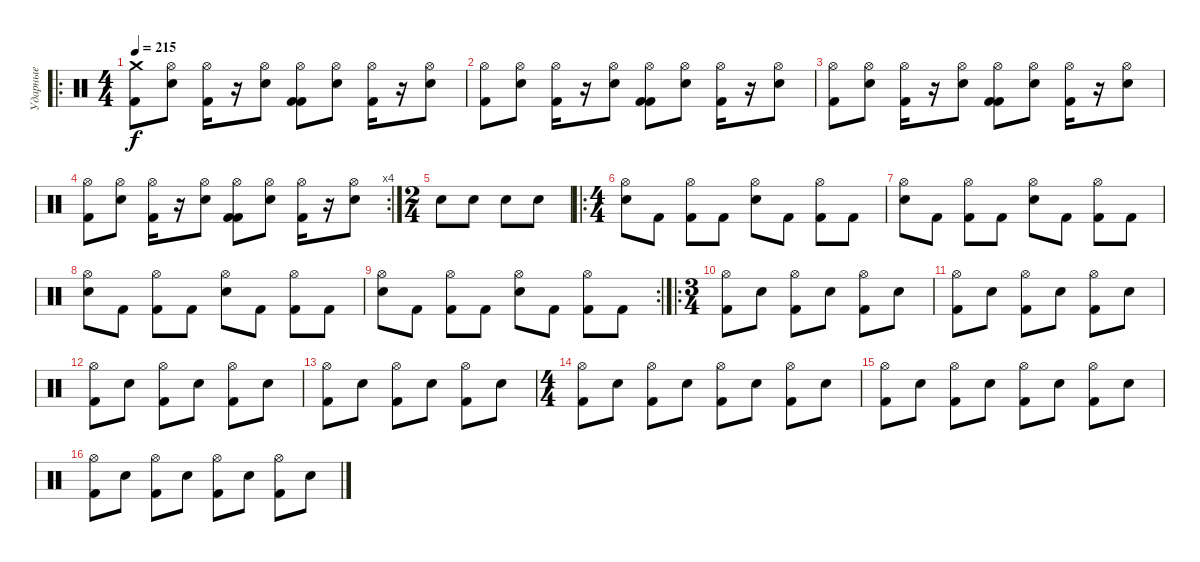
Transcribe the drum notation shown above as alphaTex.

\track ("Ударные" "Ударные") {instrument percussion}
\staff {score}
\articulation defaults
\ro
\ts (4 4)
\tempo 215
\clef neutral
\ks c
("Kick (hit) 2" "Crash medium (hit)").8{dy f} ("Hi-Hat (open)" "Electric Snare (hit)").8 ("Kick (hit) 2" "Hi-Hat (open)").16 r.16 ("Hi-Hat (open)" "Electric Snare (hit)").8 ("Kick (hit) 2" "Kick (hit) 2" "Hi-Hat (open)").8 ("Hi-Hat (open)" "Electric Snare (hit)").8 ("Kick (hit) 2" "Hi-Hat (open)").16 r.16 ("Hi-Hat (open)" "Electric Snare (hit)").8 |
("Kick (hit) 2" "Hi-Hat (open)").8 ("Hi-Hat (open)" "Electric Snare (hit)").8 ("Kick (hit) 2" "Hi-Hat (open)").16 r.16 ("Hi-Hat (open)" "Electric Snare (hit)").8 ("Kick (hit) 2" "Kick (hit) 2" "Hi-Hat (open)").8 ("Hi-Hat (open)" "Electric Snare (hit)").8 ("Kick (hit) 2" "Hi-Hat (open)").16 r.16 ("Hi-Hat (open)" "Electric Snare (hit)").8 |
("Kick (hit) 2" "Hi-Hat (open)").8 ("Hi-Hat (open)" "Electric Snare (hit)").8 ("Kick (hit) 2" "Hi-Hat (open)").16 r.16 ("Hi-Hat (open)" "Electric Snare (hit)").8 ("Kick (hit) 2" "Kick (hit) 2" "Hi-Hat (open)").8 ("Hi-Hat (open)" "Electric Snare (hit)").8 ("Kick (hit) 2" "Hi-Hat (open)").16 r.16 ("Hi-Hat (open)" "Electric Snare (hit)").8 |
\rc 4
("Kick (hit) 2" "Hi-Hat (open)").8 ("Hi-Hat (open)" "Electric Snare (hit)").8 ("Kick (hit) 2" "Hi-Hat (open)").16 r.16 ("Hi-Hat (open)" "Electric Snare (hit)").8 ("Kick (hit) 2" "Kick (hit) 2" "Hi-Hat (open)").8 ("Hi-Hat (open)" "Electric Snare (hit)").8 ("Kick (hit) 2" "Hi-Hat (open)").16 r.16 ("Hi-Hat (open)" "Electric Snare (hit)").8 |
\ts (2 4)
"Electric Snare (hit)".8 "Electric Snare (hit)".8 "Electric Snare (hit)".8 "Electric Snare (hit)".8 |
\ro
\ts (4 4)
("Electric Snare (hit)" "Hi-Hat (open)").8 "Kick (hit) 2".8 ("Hi-Hat (open)" "Kick (hit) 2").8 "Kick (hit) 2".8 ("Electric Snare (hit)" "Hi-Hat (open)").8 "Kick (hit) 2".8 ("Hi-Hat (open)" "Kick (hit) 2").8 "Kick (hit) 2".8 |
("Electric Snare (hit)" "Hi-Hat (open)").8 "Kick (hit) 2".8 ("Hi-Hat (open)" "Kick (hit) 2").8 "Kick (hit) 2".8 ("Electric Snare (hit)" "Hi-Hat (open)").8 "Kick (hit) 2".8 ("Hi-Hat (open)" "Kick (hit) 2").8 "Kick (hit) 2".8 |
("Electric Snare (hit)" "Hi-Hat (open)").8 "Kick (hit) 2".8 ("Hi-Hat (open)" "Kick (hit) 2").8 "Kick (hit) 2".8 ("Electric Snare (hit)" "Hi-Hat (open)").8 "Kick (hit) 2".8 ("Hi-Hat (open)" "Kick (hit) 2").8 "Kick (hit) 2".8 |
\rc 2
("Electric Snare (hit)" "Hi-Hat (open)").8 "Kick (hit) 2".8 ("Hi-Hat (open)" "Kick (hit) 2").8 "Kick (hit) 2".8 ("Electric Snare (hit)" "Hi-Hat (open)").8 "Kick (hit) 2".8 ("Hi-Hat (open)" "Kick (hit) 2").8 "Kick (hit) 2".8 |
\ro
\ts (3 4)
("Kick (hit) 2" "Hi-Hat (open)").8 "Electric Snare (hit)".8 ("Kick (hit) 2" "Hi-Hat (open)").8 "Electric Snare (hit)".8 ("Kick (hit) 2" "Hi-Hat (open)").8 "Electric Snare (hit)".8 |
("Kick (hit) 2" "Hi-Hat (open)").8 "Electric Snare (hit)".8 ("Kick (hit) 2" "Hi-Hat (open)").8 "Electric Snare (hit)".8 ("Kick (hit) 2" "Hi-Hat (open)").8 "Electric Snare (hit)".8 |
("Kick (hit) 2" "Hi-Hat (open)").8 "Electric Snare (hit)".8 ("Kick (hit) 2" "Hi-Hat (open)").8 "Electric Snare (hit)".8 ("Kick (hit) 2" "Hi-Hat (open)").8 "Electric Snare (hit)".8 |
("Kick (hit) 2" "Hi-Hat (open)").8 "Electric Snare (hit)".8 ("Kick (hit) 2" "Hi-Hat (open)").8 "Electric Snare (hit)".8 ("Kick (hit) 2" "Hi-Hat (open)").8 "Electric Snare (hit)".8 |
\ts (4 4)
("Kick (hit) 2" "Hi-Hat (open)").8 "Electric Snare (hit)".8 ("Kick (hit) 2" "Hi-Hat (open)").8 "Electric Snare (hit)".8 ("Kick (hit) 2" "Hi-Hat (open)").8 "Electric Snare (hit)".8 ("Kick (hit) 2" "Hi-Hat (open)").8 "Electric Snare (hit)".8 |
("Kick (hit) 2" "Hi-Hat (open)").8 "Electric Snare (hit)".8 ("Kick (hit) 2" "Hi-Hat (open)").8 "Electric Snare (hit)".8 ("Kick (hit) 2" "Hi-Hat (open)").8 "Electric Snare (hit)".8 ("Kick (hit) 2" "Hi-Hat (open)").8 "Electric Snare (hit)".8 |
("Kick (hit) 2" "Hi-Hat (open)").8 "Electric Snare (hit)".8 ("Kick (hit) 2" "Hi-Hat (open)").8 "Electric Snare (hit)".8 ("Kick (hit) 2" "Hi-Hat (open)").8 "Electric Snare (hit)".8 ("Kick (hit) 2" "Hi-Hat (open)").8 "Electric Snare (hit)".8
